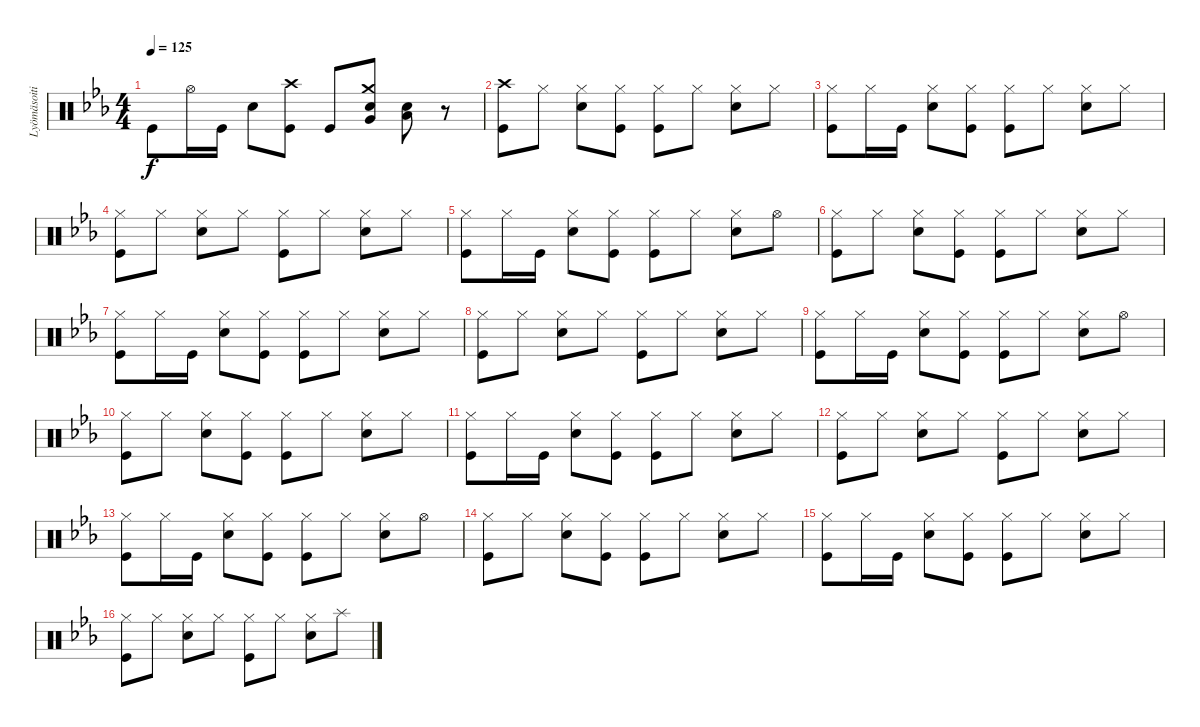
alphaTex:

\track ("Lyömäsoitin" "Lyömäsoiti") {instrument percussion}
\staff {score}
\articulation defaults
\ts (4 4)
\tempo 125
\clef neutral
\ks cminor "Kick (hit)".8{dy f} "Hi-Hat (open)".16 "Kick (hit)".16 "Snare (hit) 2".8
("Crash high (hit)" "Kick (hit)").8 "Kick (hit)".8 ("Crash medium (hit)" "Very Low Tom (hit)" "Snare (hit) 2").8 ("Low Floor Tom (hit)" "Snare (hit) 2").8 r.8 |
("Crash high (hit)" "Kick (hit)").8 "Hi-Hat (closed)".8 ("Hi-Hat (closed)" "Snare (hit) 2").8 ("Hi-Hat (closed)" "Kick (hit)").8 ("Hi-Hat (closed)" "Kick (hit)").8 "Hi-Hat (closed)".8 ("Hi-Hat (closed)" "Snare (hit) 2").8 "Hi-Hat (closed)".8 |
("Hi-Hat (closed)" "Kick (hit)").8 "Hi-Hat (closed)".16 "Kick (hit)".16 ("Hi-Hat (closed)" "Snare (hit) 2").8 ("Hi-Hat (closed)" "Kick (hit)").8 ("Hi-Hat (closed)" "Kick (hit)").8 "Hi-Hat (closed)".8 ("Hi-Hat (closed)" "Snare (hit) 2").8 "Hi-Hat (closed)".8 |
("Hi-Hat (closed)" "Kick (hit)").8 "Hi-Hat (closed)".8 ("Hi-Hat (closed)" "Snare (hit) 2").8 "Hi-Hat (closed)".8 ("Hi-Hat (closed)" "Kick (hit)").8 "Hi-Hat (closed)".8 ("Hi-Hat (closed)" "Snare (hit) 2").8 "Hi-Hat (closed)".8 |
("Hi-Hat (closed)" "Kick (hit)").8 "Hi-Hat (closed)".16 "Kick (hit)".16 ("Hi-Hat (closed)" "Snare (hit) 2").8 ("Hi-Hat (closed)" "Kick (hit)").8 ("Hi-Hat (closed)" "Kick (hit)").8 "Hi-Hat (closed)".8 ("Hi-Hat (closed)" "Snare (hit) 2").8 "Hi-Hat (open)".8 |
("Hi-Hat (closed)" "Kick (hit)").8 "Hi-Hat (closed)".8 ("Hi-Hat (closed)" "Snare (hit) 2").8 ("Hi-Hat (closed)" "Kick (hit)").8 ("Hi-Hat (closed)" "Kick (hit)").8 "Hi-Hat (closed)".8 ("Hi-Hat (closed)" "Snare (hit) 2").8 "Hi-Hat (closed)".8 |
("Hi-Hat (closed)" "Kick (hit)").8 "Hi-Hat (closed)".16 "Kick (hit)".16 ("Hi-Hat (closed)" "Snare (hit) 2").8 ("Hi-Hat (closed)" "Kick (hit)").8 ("Hi-Hat (closed)" "Kick (hit)").8 "Hi-Hat (closed)".8 ("Hi-Hat (closed)" "Snare (hit) 2").8 "Hi-Hat (closed)".8 |
("Hi-Hat (closed)" "Kick (hit)").8 "Hi-Hat (closed)".8 ("Hi-Hat (closed)" "Snare (hit) 2").8 "Hi-Hat (closed)".8 ("Hi-Hat (closed)" "Kick (hit)").8 "Hi-Hat (closed)".8 ("Hi-Hat (closed)" "Snare (hit) 2").8 "Hi-Hat (closed)".8 |
("Hi-Hat (closed)" "Kick (hit)").8 "Hi-Hat (closed)".16 "Kick (hit)".16 ("Hi-Hat (closed)" "Snare (hit) 2").8 ("Hi-Hat (closed)" "Kick (hit)").8 ("Hi-Hat (closed)" "Kick (hit)").8 "Hi-Hat (closed)".8 ("Hi-Hat (closed)" "Snare (hit) 2").8 "Hi-Hat (open)".8 |
("Hi-Hat (closed)" "Kick (hit)").8 "Hi-Hat (closed)".8 ("Hi-Hat (closed)" "Snare (hit) 2").8 ("Hi-Hat (closed)" "Kick (hit)").8 ("Hi-Hat (closed)" "Kick (hit)").8 "Hi-Hat (closed)".8 ("Hi-Hat (closed)" "Snare (hit) 2").8 "Hi-Hat (closed)".8 |
("Hi-Hat (closed)" "Kick (hit)").8 "Hi-Hat (closed)".16 "Kick (hit)".16 ("Hi-Hat (closed)" "Snare (hit) 2").8 ("Hi-Hat (closed)" "Kick (hit)").8 ("Hi-Hat (closed)" "Kick (hit)").8 "Hi-Hat (closed)".8 ("Hi-Hat (closed)" "Snare (hit) 2").8 "Hi-Hat (closed)".8 |
("Hi-Hat (closed)" "Kick (hit)").8 "Hi-Hat (closed)".8 ("Hi-Hat (closed)" "Snare (hit) 2").8 "Hi-Hat (closed)".8 ("Hi-Hat (closed)" "Kick (hit)").8 "Hi-Hat (closed)".8 ("Hi-Hat (closed)" "Snare (hit) 2").8 "Hi-Hat (closed)".8 |
("Hi-Hat (closed)" "Kick (hit)").8 "Hi-Hat (closed)".16 "Kick (hit)".16 ("Hi-Hat (closed)" "Snare (hit) 2").8 ("Hi-Hat (closed)" "Kick (hit)").8 ("Hi-Hat (closed)" "Kick (hit)").8 "Hi-Hat (closed)".8 ("Hi-Hat (closed)" "Snare (hit) 2").8 "Hi-Hat (open)".8 |
("Hi-Hat (closed)" "Kick (hit)").8 "Hi-Hat (closed)".8 ("Hi-Hat (closed)" "Snare (hit) 2").8 ("Hi-Hat (closed)" "Kick (hit)").8 ("Hi-Hat (closed)" "Kick (hit)").8 "Hi-Hat (closed)".8 ("Hi-Hat (closed)" "Snare (hit) 2").8 "Hi-Hat (closed)".8 |
("Hi-Hat (closed)" "Kick (hit)").8 "Hi-Hat (closed)".16 "Kick (hit)".16 ("Hi-Hat (closed)" "Snare (hit) 2").8 ("Hi-Hat (closed)" "Kick (hit)").8 ("Hi-Hat (closed)" "Kick (hit)").8 "Hi-Hat (closed)".8 ("Hi-Hat (closed)" "Snare (hit) 2").8 "Hi-Hat (closed)".8 |
("Hi-Hat (closed)" "Kick (hit)").8 "Hi-Hat (closed)".8 ("Hi-Hat (closed)" "Snare (hit) 2").8 "Hi-Hat (closed)".8 ("Hi-Hat (closed)" "Kick (hit)").8 "Hi-Hat (closed)".8 ("Hi-Hat (closed)" "Snare (hit) 2").8 "Splash (hit)".8
